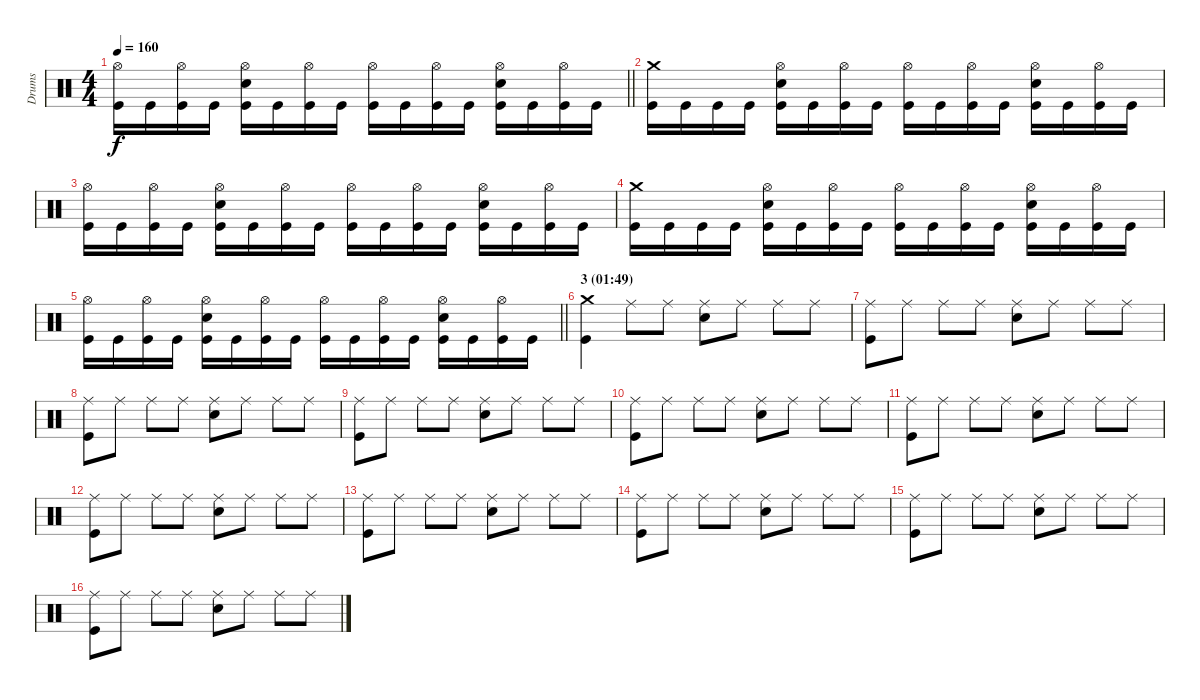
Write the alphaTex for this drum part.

\track ("Drums" "Drums") {instrument percussion}
\staff {score}
\articulation defaults
\ts (4 4)
\tempo 160
\clef neutral
\barLineRight lightlight
\ks c
("Hi-Hat (open)" "Kick (hit)").16{dy f} "Kick (hit)".16 ("Hi-Hat (open)" "Kick (hit)").16 "Kick (hit)".16 ("Hi-Hat (open)" "Electric Snare (hit)" "Kick (hit)").16 "Kick (hit)".16 ("Hi-Hat (open)" "Kick (hit)").16 "Kick (hit)".16 ("Hi-Hat (open)" "Kick (hit)").16 "Kick (hit)".16 ("Hi-Hat (open)" "Kick (hit)").16 "Kick (hit)".16 ("Hi-Hat (open)" "Electric Snare (hit)" "Kick (hit)").16 "Kick (hit)".16 ("Hi-Hat (open)" "Kick (hit)").16 "Kick (hit)".16 |
("Crash medium (hit)" "Kick (hit)").16 "Kick (hit)".16 "Kick (hit)".16 "Kick (hit)".16 ("Hi-Hat (open)" "Electric Snare (hit)" "Kick (hit)").16 "Kick (hit)".16 ("Hi-Hat (open)" "Kick (hit)").16 "Kick (hit)".16 ("Hi-Hat (open)" "Kick (hit)").16 "Kick (hit)".16 ("Hi-Hat (open)" "Kick (hit)").16 "Kick (hit)".16 ("Hi-Hat (open)" "Electric Snare (hit)" "Kick (hit)").16 "Kick (hit)".16 ("Hi-Hat (open)" "Kick (hit)").16 "Kick (hit)".16 |
("Hi-Hat (open)" "Kick (hit)").16 "Kick (hit)".16 ("Hi-Hat (open)" "Kick (hit)").16 "Kick (hit)".16 ("Hi-Hat (open)" "Electric Snare (hit)" "Kick (hit)").16 "Kick (hit)".16 ("Hi-Hat (open)" "Kick (hit)").16 "Kick (hit)".16 ("Hi-Hat (open)" "Kick (hit)").16 "Kick (hit)".16 ("Hi-Hat (open)" "Kick (hit)").16 "Kick (hit)".16 ("Hi-Hat (open)" "Electric Snare (hit)" "Kick (hit)").16 "Kick (hit)".16 ("Hi-Hat (open)" "Kick (hit)").16 "Kick (hit)".16 |
("Crash medium (hit)" "Kick (hit)").16 "Kick (hit)".16 "Kick (hit)".16 "Kick (hit)".16 ("Hi-Hat (open)" "Electric Snare (hit)" "Kick (hit)").16 "Kick (hit)".16 ("Hi-Hat (open)" "Kick (hit)").16 "Kick (hit)".16 ("Hi-Hat (open)" "Kick (hit)").16 "Kick (hit)".16 ("Hi-Hat (open)" "Kick (hit)").16 "Kick (hit)".16 ("Hi-Hat (open)" "Electric Snare (hit)" "Kick (hit)").16 "Kick (hit)".16 ("Hi-Hat (open)" "Kick (hit)").16 "Kick (hit)".16 |
\barLineRight lightlight
("Hi-Hat (open)" "Kick (hit)").16 "Kick (hit)".16 ("Hi-Hat (open)" "Kick (hit)").16 "Kick (hit)".16 ("Hi-Hat (open)" "Electric Snare (hit)" "Kick (hit)").16 "Kick (hit)".16 ("Hi-Hat (open)" "Kick (hit)").16 "Kick (hit)".16 ("Hi-Hat (open)" "Kick (hit)").16 "Kick (hit)".16 ("Hi-Hat (open)" "Kick (hit)").16 "Kick (hit)".16 ("Hi-Hat (open)" "Electric Snare (hit)" "Kick (hit)").16 "Kick (hit)".16 ("Hi-Hat (open)" "Kick (hit)").16 "Kick (hit)".16 |
\section ("" "3 (01:49)")
("Crash medium (hit)" "Kick (hit)").4 "Ride (middle)".8 "Ride (middle)".8 ("Ride (middle)" "Electric Snare (hit)").8 "Ride (middle)".8 "Ride (middle)".8 "Ride (middle)".8 |
("Ride (middle)" "Kick (hit)").8 "Ride (middle)".8 "Ride (middle)".8 "Ride (middle)".8 ("Ride (middle)" "Electric Snare (hit)").8 "Ride (middle)".8 "Ride (middle)".8 "Ride (middle)".8 |
("Ride (middle)" "Kick (hit)").8 "Ride (middle)".8 "Ride (middle)".8 "Ride (middle)".8 ("Ride (middle)" "Electric Snare (hit)").8 "Ride (middle)".8 "Ride (middle)".8 "Ride (middle)".8 |
("Ride (middle)" "Kick (hit)").8 "Ride (middle)".8 "Ride (middle)".8 "Ride (middle)".8 ("Ride (middle)" "Electric Snare (hit)").8 "Ride (middle)".8 "Ride (middle)".8 "Ride (middle)".8 |
("Ride (middle)" "Kick (hit)").8 "Ride (middle)".8 "Ride (middle)".8 "Ride (middle)".8 ("Ride (middle)" "Electric Snare (hit)").8 "Ride (middle)".8 "Ride (middle)".8 "Ride (middle)".8 |
("Ride (middle)" "Kick (hit)").8 "Ride (middle)".8 "Ride (middle)".8 "Ride (middle)".8 ("Ride (middle)" "Electric Snare (hit)").8 "Ride (middle)".8 "Ride (middle)".8 "Ride (middle)".8 |
("Ride (middle)" "Kick (hit)").8 "Ride (middle)".8 "Ride (middle)".8 "Ride (middle)".8 ("Ride (middle)" "Electric Snare (hit)").8 "Ride (middle)".8 "Ride (middle)".8 "Ride (middle)".8 |
("Ride (middle)" "Kick (hit)").8 "Ride (middle)".8 "Ride (middle)".8 "Ride (middle)".8 ("Ride (middle)" "Electric Snare (hit)").8 "Ride (middle)".8 "Ride (middle)".8 "Ride (middle)".8 |
("Ride (middle)" "Kick (hit)").8 "Ride (middle)".8 "Ride (middle)".8 "Ride (middle)".8 ("Ride (middle)" "Electric Snare (hit)").8 "Ride (middle)".8 "Ride (middle)".8 "Ride (middle)".8 |
("Ride (middle)" "Kick (hit)").8 "Ride (middle)".8 "Ride (middle)".8 "Ride (middle)".8 ("Ride (middle)" "Electric Snare (hit)").8 "Ride (middle)".8 "Ride (middle)".8 "Ride (middle)".8 |
("Ride (middle)" "Kick (hit)").8 "Ride (middle)".8 "Ride (middle)".8 "Ride (middle)".8 ("Ride (middle)" "Electric Snare (hit)").8 "Ride (middle)".8 "Ride (middle)".8 "Ride (middle)".8
